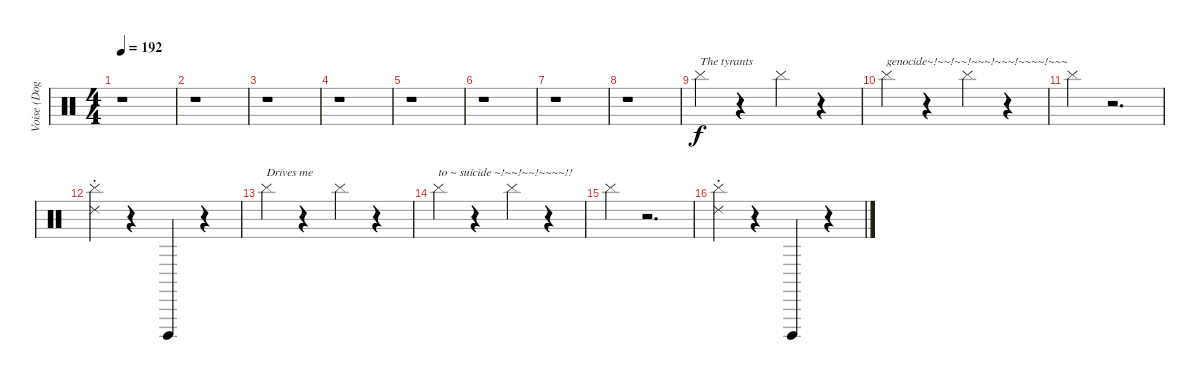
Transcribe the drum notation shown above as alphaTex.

\track ("Voise (Dog)" "Voise (Dog") {instrument percussion}
\staff {score}
\articulation defaults
\ts (4 4)
\tempo 192
\clef neutral
\ks c
r.1{dy fff} |
r.1 |
r.1 |
r.1 |
r.1 |
r.1 |
r.1 |
r.1 |
"Cymbal (hit)".4{txt "The tyrants" dy f} r.4 "Cymbal (hit)".4 r.4 |
"Cymbal (hit)".4{txt "genocide~!~~!~~!~~~!~~~!~~~~!~~~"} r.4 "Cymbal (hit)".4 r.4 |
"Cymbal (hit)".4 r.2{d} |
("Ride (choke) 2" "Cymbal (hit)").4 r.4 "Cuica (open)".4 r.4 |
"Cymbal (hit)".4{txt "Drives me"} r.4 "Cymbal (hit)".4 r.4 |
"Cymbal (hit)".4{txt "to ~ suicide ~!~~!~~!~~~~!!"} r.4 "Cymbal (hit)".4 r.4 |
"Cymbal (hit)".4 r.2{d} |
("Ride (choke) 2" "Cymbal (hit)").4 r.4 "Cuica (open)".4 r.4
